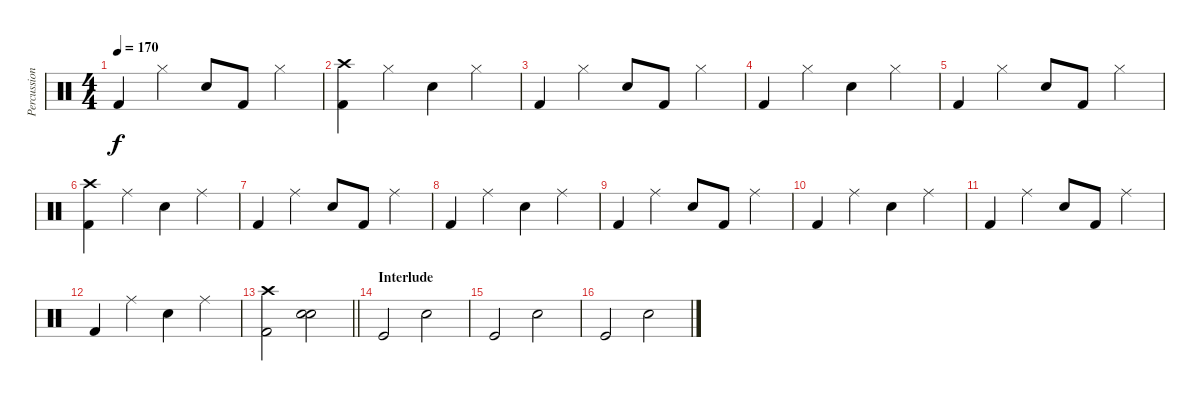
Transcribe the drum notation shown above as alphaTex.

\track ("Percussion" "Percussion") {instrument percussion}
\staff {score}
\articulation defaults
\ts (4 4)
\tempo 170
\clef neutral
\ks c "Kick (hit) 2".4{dy f} "Hi-Hat (closed)".4 "Snare (hit) 2".8 "Kick (hit) 2".8 "Hi-Hat (closed)".4
|
("Crash high (hit)" "Kick (hit) 2").4 "Hi-Hat (closed)".4 "Snare (hit) 2".4 "Hi-Hat (closed)".4 |
"Kick (hit) 2".4 "Hi-Hat (closed)".4 "Snare (hit) 2".8 "Kick (hit) 2".8 "Hi-Hat (closed)".4 |
"Kick (hit) 2".4 "Hi-Hat (closed)".4 "Snare (hit) 2".4 "Hi-Hat (closed)".4 |
"Kick (hit) 2".4 "Hi-Hat (closed)".4 "Snare (hit) 2".8 "Kick (hit) 2".8 "Hi-Hat (closed)".4 |
("Crash high (hit)" "Kick (hit) 2").4 "Ride (middle)".4 "Snare (hit) 2".4 "Ride (middle)".4 |
"Kick (hit) 2".4 "Ride (middle)".4 "Snare (hit) 2".8 "Kick (hit) 2".8 "Ride (middle)".4 |
"Kick (hit) 2".4 "Ride (middle)".4 "Snare (hit) 2".4 "Ride (middle)".4 |
"Kick (hit) 2".4 "Ride (middle)".4 "Snare (hit) 2".8 "Kick (hit) 2".8 "Ride (middle)".4 |
"Kick (hit) 2".4 "Ride (middle)".4 "Snare (hit) 2".4 "Ride (middle)".4 |
"Kick (hit) 2".4 "Ride (middle)".4 "Snare (hit) 2".8 "Kick (hit) 2".8 "Ride (middle)".4 |
"Kick (hit) 2".4 "Ride (middle)".4 "Snare (hit) 2".4 "Ride (middle)".4 |
\barLineRight lightlight
("Crash high (hit)" "Kick (hit) 2").2 ("Snare (hit) 2" "Snare (hit) 2").2 |
\section ("" "Interlude")
"Kick (hit)".2 "Snare (hit) 2".2 |
"Kick (hit)".2 "Snare (hit) 2".2 |
"Kick (hit)".2 "Snare (hit) 2".2
